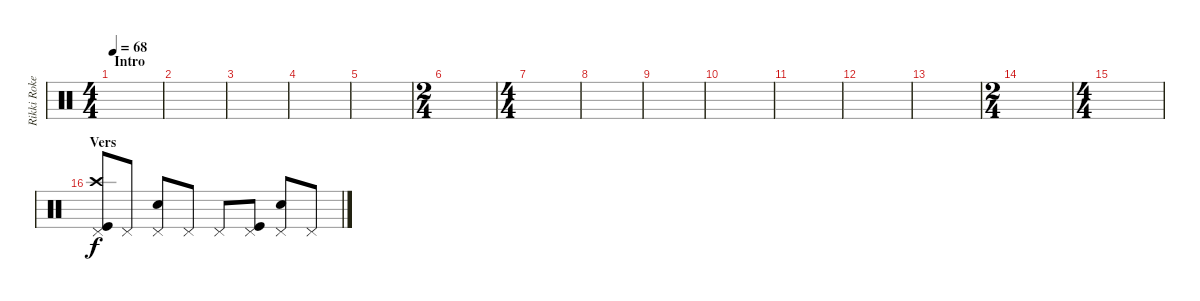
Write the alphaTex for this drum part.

\track ("Rikki Rokett" "Rikki Roke") {instrument percussion}
\staff {score}
\articulation defaults
\ts (4 4)
\section ("" "Intro")
\tempo 68
\clef neutral
\ks c
|
|
|
|
|
\ts (2 4)
|
\ts (4 4)
|
|
|
|
|
|
|
\ts (2 4)
|
\ts (4 4)
|
\section ("" "Vers")
("Pedal Hi-Hat (hit)" "Crash high (hit)" "Kick (hit)").8 "Pedal Hi-Hat (hit)".8 ("Pedal Hi-Hat (hit)" "Snare (hit) 2").8 "Pedal Hi-Hat (hit)".8 "Pedal Hi-Hat (hit)".8 ("Pedal Hi-Hat (hit)" "Kick (hit)").8 ("Pedal Hi-Hat (hit)" "Snare (hit) 2").8 "Pedal Hi-Hat (hit)".8
